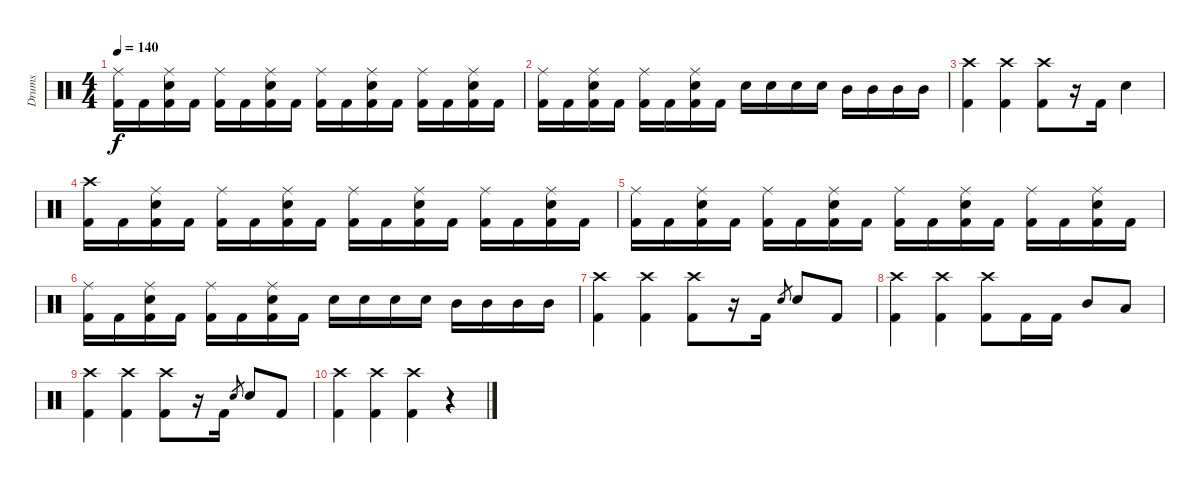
\track ("Drums" "Drums") {instrument percussion}
\staff {score}
\articulation defaults
\ts (4 4)
\tempo 140
\clef neutral
\ks c
("Ride (middle)" "Kick (hit) 2").16{dy f} "Kick (hit) 2".16 ("Ride (middle)" "Electric Snare (hit)" "Kick (hit) 2").16 "Kick (hit) 2".16 ("Ride (middle)" "Kick (hit) 2").16 "Kick (hit) 2".16 ("Ride (middle)" "Electric Snare (hit)" "Kick (hit) 2").16 "Kick (hit) 2".16 ("Ride (middle)" "Kick (hit) 2").16 "Kick (hit) 2".16 ("Ride (middle)" "Electric Snare (hit)" "Kick (hit) 2").16 "Kick (hit) 2".16 ("Ride (middle)" "Kick (hit) 2").16 "Kick (hit) 2".16 ("Ride (middle)" "Electric Snare (hit)" "Kick (hit) 2").16 "Kick (hit) 2".16 |
("Ride (middle)" "Kick (hit) 2").16 "Kick (hit) 2".16 ("Ride (middle)" "Electric Snare (hit)" "Kick (hit) 2").16 "Kick (hit) 2".16 ("Ride (middle)" "Kick (hit) 2").16 "Kick (hit) 2".16 ("Ride (middle)" "Electric Snare (hit)" "Kick (hit) 2").16 "Kick (hit) 2".16 "Electric Snare (hit)".16 "Electric Snare (hit)".16 "Electric Snare (hit)".16 "Electric Snare (hit)".16 "Mid Tom (hit)".16 "Mid Tom (hit)".16 "Mid Tom (hit)".16 "Mid Tom (hit)".16 |
("Crash high (hit)" "Kick (hit) 2").4 ("Crash high (hit)" "Kick (hit) 2").4 ("Crash high (hit)" "Kick (hit) 2").8 r.16 "Kick (hit) 2".16 "Electric Snare (hit)".4 |
("Crash high (hit)" "Kick (hit) 2").16 "Kick (hit) 2".16 ("Ride (middle)" "Electric Snare (hit)" "Kick (hit) 2").16 "Kick (hit) 2".16 ("Ride (middle)" "Kick (hit) 2").16 "Kick (hit) 2".16 ("Ride (middle)" "Electric Snare (hit)" "Kick (hit) 2").16 "Kick (hit) 2".16 ("Ride (middle)" "Kick (hit) 2").16 "Kick (hit) 2".16 ("Ride (middle)" "Electric Snare (hit)" "Kick (hit) 2").16 "Kick (hit) 2".16 ("Ride (middle)" "Kick (hit) 2").16 "Kick (hit) 2".16 ("Ride (middle)" "Electric Snare (hit)" "Kick (hit) 2").16 "Kick (hit) 2".16 |
("Ride (middle)" "Kick (hit) 2").16 "Kick (hit) 2".16 ("Ride (middle)" "Electric Snare (hit)" "Kick (hit) 2").16 "Kick (hit) 2".16 ("Ride (middle)" "Kick (hit) 2").16 "Kick (hit) 2".16 ("Ride (middle)" "Electric Snare (hit)" "Kick (hit) 2").16 "Kick (hit) 2".16 ("Ride (middle)" "Kick (hit) 2").16 "Kick (hit) 2".16 ("Ride (middle)" "Electric Snare (hit)" "Kick (hit) 2").16 "Kick (hit) 2".16 ("Ride (middle)" "Kick (hit) 2").16 "Kick (hit) 2".16 ("Ride (middle)" "Electric Snare (hit)" "Kick (hit) 2").16 "Kick (hit) 2".16 |
("Ride (middle)" "Kick (hit) 2").16 "Kick (hit) 2".16 ("Ride (middle)" "Electric Snare (hit)" "Kick (hit) 2").16 "Kick (hit) 2".16 ("Ride (middle)" "Kick (hit) 2").16 "Kick (hit) 2".16 ("Ride (middle)" "Electric Snare (hit)" "Kick (hit) 2").16 "Kick (hit) 2".16 "Electric Snare (hit)".16 "Electric Snare (hit)".16 "Electric Snare (hit)".16 "Electric Snare (hit)".16 "Mid Tom (hit)".16 "Mid Tom (hit)".16 "Mid Tom (hit)".16 "Mid Tom (hit)".16 |
("Crash high (hit)" "Kick (hit) 2").4 ("Crash high (hit)" "Kick (hit) 2").4 ("Crash high (hit)" "Kick (hit) 2").8 r.16 "Kick (hit) 2".16 "Electric Snare (hit)".8{gr} "Electric Snare (hit)".8 "Kick (hit) 2".8 |
("Crash high (hit)" "Kick (hit) 2").4 ("Crash high (hit)" "Kick (hit) 2").4 ("Crash high (hit)" "Kick (hit) 2").8 "Kick (hit) 2".16 "Kick (hit) 2".16 "Mid Tom (hit)".8 "Low Tom (hit)".8 |
("Crash high (hit)" "Kick (hit) 2").4 ("Crash high (hit)" "Kick (hit) 2").4 ("Crash high (hit)" "Kick (hit) 2").8 r.16 "Kick (hit) 2".16 "Electric Snare (hit)".8{gr} "Electric Snare (hit)".8 "Kick (hit) 2".8 |
("Crash high (hit)" "Kick (hit) 2").4 ("Crash high (hit)" "Kick (hit) 2").4 ("Crash high (hit)" "Kick (hit) 2").4 r.4
